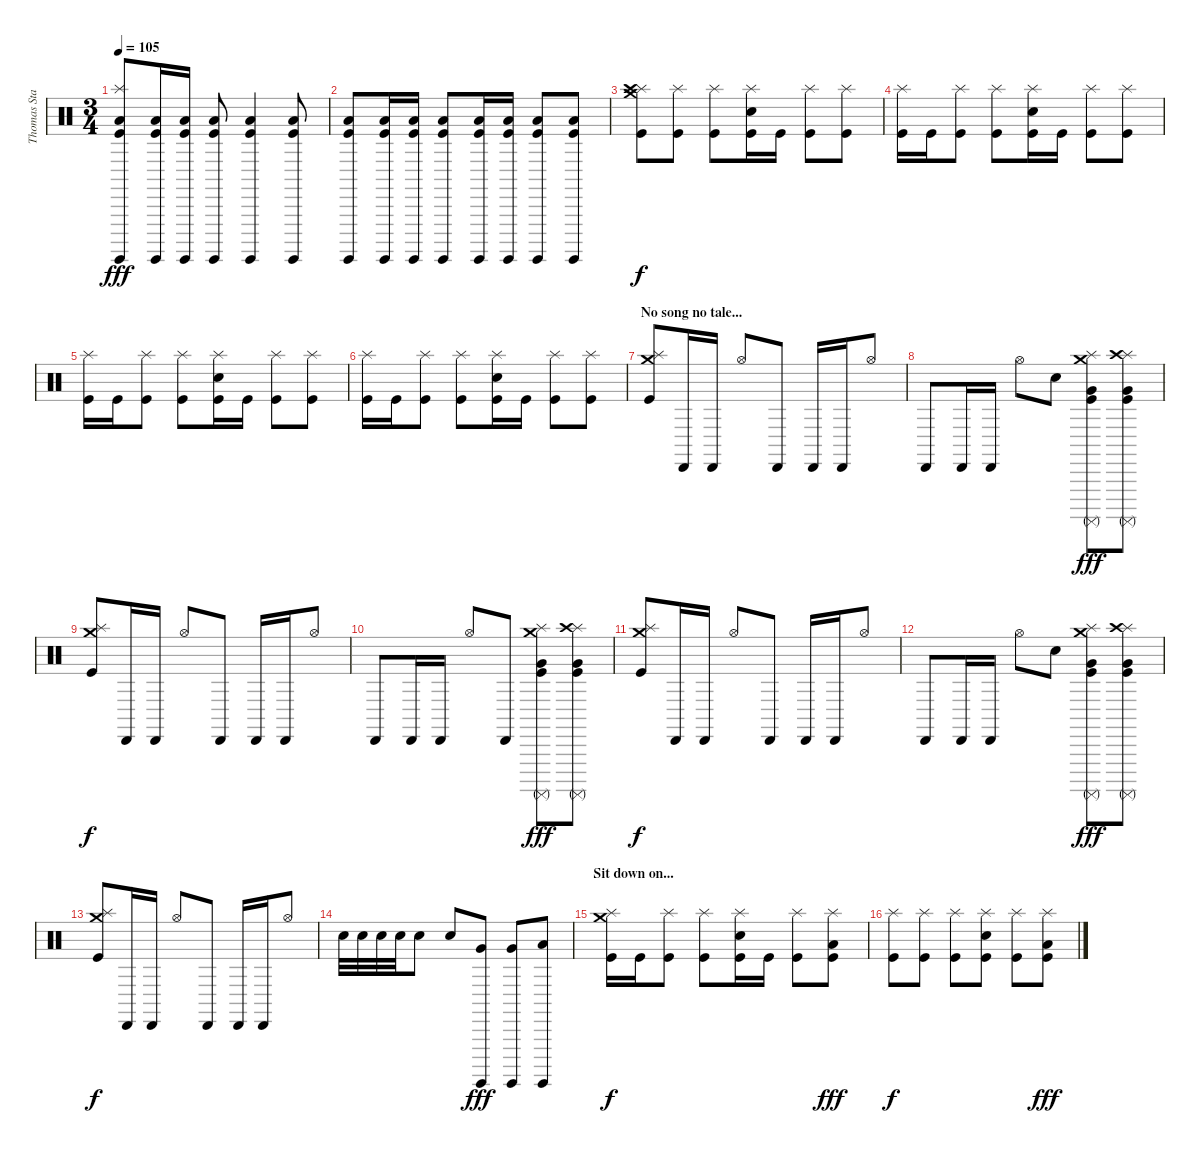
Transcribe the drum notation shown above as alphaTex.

\track ("Thomas Stauch" "Thomas Sta") {instrument percussion}
\staff {score}
\articulation defaults
\ts (3 4)
\tempo 105
\clef neutral
\ks c
("Splash (hit)" "Surdo (hit)" "Low Floor Tom (hit)" "Kick (hit)").8{dy fff} ("Surdo (hit)" "Low Floor Tom (hit)" "Kick (hit)").16 ("Surdo (hit)" "Low Floor Tom (hit)" "Kick (hit)").16 ("Surdo (hit)" "Low Floor Tom (hit)" "Kick (hit)").8 ("Surdo (hit)" "Low Floor Tom (hit)" "Kick (hit)").4 ("Surdo (hit)" "Low Floor Tom (hit)" "Kick (hit)").8 |
("Surdo (hit)" "Low Floor Tom (hit)" "Kick (hit)").8 ("Surdo (hit)" "Low Floor Tom (hit)" "Kick (hit)").16 ("Surdo (hit)" "Low Floor Tom (hit)" "Kick (hit)").16 ("Surdo (hit)" "Low Floor Tom (hit)" "Kick (hit)").8 ("Surdo (hit)" "Low Floor Tom (hit)" "Kick (hit)").16 ("Surdo (hit)" "Low Floor Tom (hit)" "Kick (hit)").16 ("Surdo (hit)" "Low Floor Tom (hit)" "Kick (hit)").8 ("Surdo (hit)" "Low Floor Tom (hit)" "Kick (hit)").8 |
("Crash medium (hit)" "Splash (hit)" "Crash high (hit)" "Kick (hit)").8{dy f} ("Splash (hit)" "Kick (hit)").8 ("Splash (hit)" "Kick (hit)").8 ("Splash (hit)" "Electric Snare (hit)" "Kick (hit)").16 "Kick (hit)".16 ("Splash (hit)" "Kick (hit)").8 ("Splash (hit)" "Kick (hit)").8 |
("Splash (hit)" "Kick (hit)").16 "Kick (hit)".16 ("Splash (hit)" "Kick (hit)").8 ("Splash (hit)" "Kick (hit)").8 ("Splash (hit)" "Electric Snare (hit)" "Kick (hit)").16 "Kick (hit)".16 ("Splash (hit)" "Kick (hit)").8 ("Splash (hit)" "Kick (hit)").8 |
("Splash (hit)" "Kick (hit)").16 "Kick (hit)".16 ("Splash (hit)" "Kick (hit)").8 ("Splash (hit)" "Kick (hit)").8 ("Splash (hit)" "Electric Snare (hit)" "Kick (hit)").16 "Kick (hit)".16 ("Splash (hit)" "Kick (hit)").8 ("Splash (hit)" "Kick (hit)").8 |
("Splash (hit)" "Kick (hit)").16 "Kick (hit)".16 ("Splash (hit)" "Kick (hit)").8 ("Splash (hit)" "Kick (hit)").8 ("Splash (hit)" "Electric Snare (hit)" "Kick (hit)").16 "Kick (hit)".16 ("Splash (hit)" "Kick (hit)").8 ("Splash (hit)" "Kick (hit)").8 |
\section ("" "No song no tale...")
("Crash medium (hit)" "Splash (hit)" "Kick (hit)").8 "Cabasa (hit)".16 "Cabasa (hit)".16 "Hi-Hat (open)".8 "Cabasa (hit)".8 "Cabasa (hit)".16 "Cabasa (hit)".16 "Hi-Hat (open)".8 |
"Cabasa (hit)".8 "Cabasa (hit)".16 "Cabasa (hit)".16 "Hi-Hat (open)".8 "Electric Snare (hit)".8 ("Crash medium (hit)" "Splash (hit)" "Surdo (mute)" "Very Low Tom (hit)" "Kick (hit)").8{dy fff} ("Splash (hit)" "Crash high (hit)" "Surdo (mute)" "Very Low Tom (hit)" "Kick (hit)").8 |
("Crash medium (hit)" "Splash (hit)" "Kick (hit)").8{dy f} "Cabasa (hit)".16 "Cabasa (hit)".16 "Hi-Hat (open)".8 "Cabasa (hit)".8 "Cabasa (hit)".16 "Cabasa (hit)".16 "Hi-Hat (open)".8 |
"Cabasa (hit)".8 "Cabasa (hit)".16 "Cabasa (hit)".16 "Hi-Hat (open)".8 "Cabasa (hit)".8 ("Crash medium (hit)" "Splash (hit)" "Surdo (mute)" "Very Low Tom (hit)" "Kick (hit)").8{dy fff} ("Splash (hit)" "Crash high (hit)" "Surdo (mute)" "Very Low Tom (hit)" "Kick (hit)").8 |
("Crash medium (hit)" "Splash (hit)" "Kick (hit)").8{dy f} "Cabasa (hit)".16 "Cabasa (hit)".16 "Hi-Hat (open)".8 "Cabasa (hit)".8 "Cabasa (hit)".16 "Cabasa (hit)".16 "Hi-Hat (open)".8 |
"Cabasa (hit)".8 "Cabasa (hit)".16 "Cabasa (hit)".16 "Hi-Hat (open)".8 "Electric Snare (hit)".8 ("Crash medium (hit)" "Splash (hit)" "Surdo (mute)" "Very Low Tom (hit)" "Kick (hit)").8{dy fff} ("Splash (hit)" "Crash high (hit)" "Surdo (mute)" "Very Low Tom (hit)" "Kick (hit)").8 |
("Crash medium (hit)" "Splash (hit)" "Kick (hit)").8{dy f} "Cabasa (hit)".16 "Cabasa (hit)".16 "Hi-Hat (open)".8 "Cabasa (hit)".8 "Cabasa (hit)".16 "Cabasa (hit)".16 "Hi-Hat (open)".8 |
"Electric Snare (hit)".32 "Electric Snare (hit)".32 "Electric Snare (hit)".32 "Electric Snare (hit)".32 "Electric Snare (hit)".8 "Electric Snare (hit)".8 ("Surdo (hit)" "Very Low Tom (hit)").8{dy fff} ("Surdo (hit)" "Very Low Tom (hit)").8 ("Surdo (hit)" "Low Floor Tom (hit)").8 |
\section ("" "Sit down on...")
("Crash medium (hit)" "Splash (hit)" "Kick (hit)").16{dy f} "Kick (hit)".16 ("Splash (hit)" "Kick (hit)").8 ("Splash (hit)" "Kick (hit)").8 ("Splash (hit)" "Electric Snare (hit)" "Kick (hit)").16 "Kick (hit)".16 ("Splash (hit)" "Kick (hit)").8 ("Splash (hit)" "Low Floor Tom (hit)" "Kick (hit)").8{dy fff} |
("Splash (hit)" "Kick (hit)").8{dy f} ("Splash (hit)" "Kick (hit)").8 ("Splash (hit)" "Kick (hit)").8 ("Splash (hit)" "Electric Snare (hit)" "Kick (hit)").8 ("Splash (hit)" "Kick (hit)").8 ("Splash (hit)" "Low Floor Tom (hit)" "Kick (hit)").8{dy fff}
